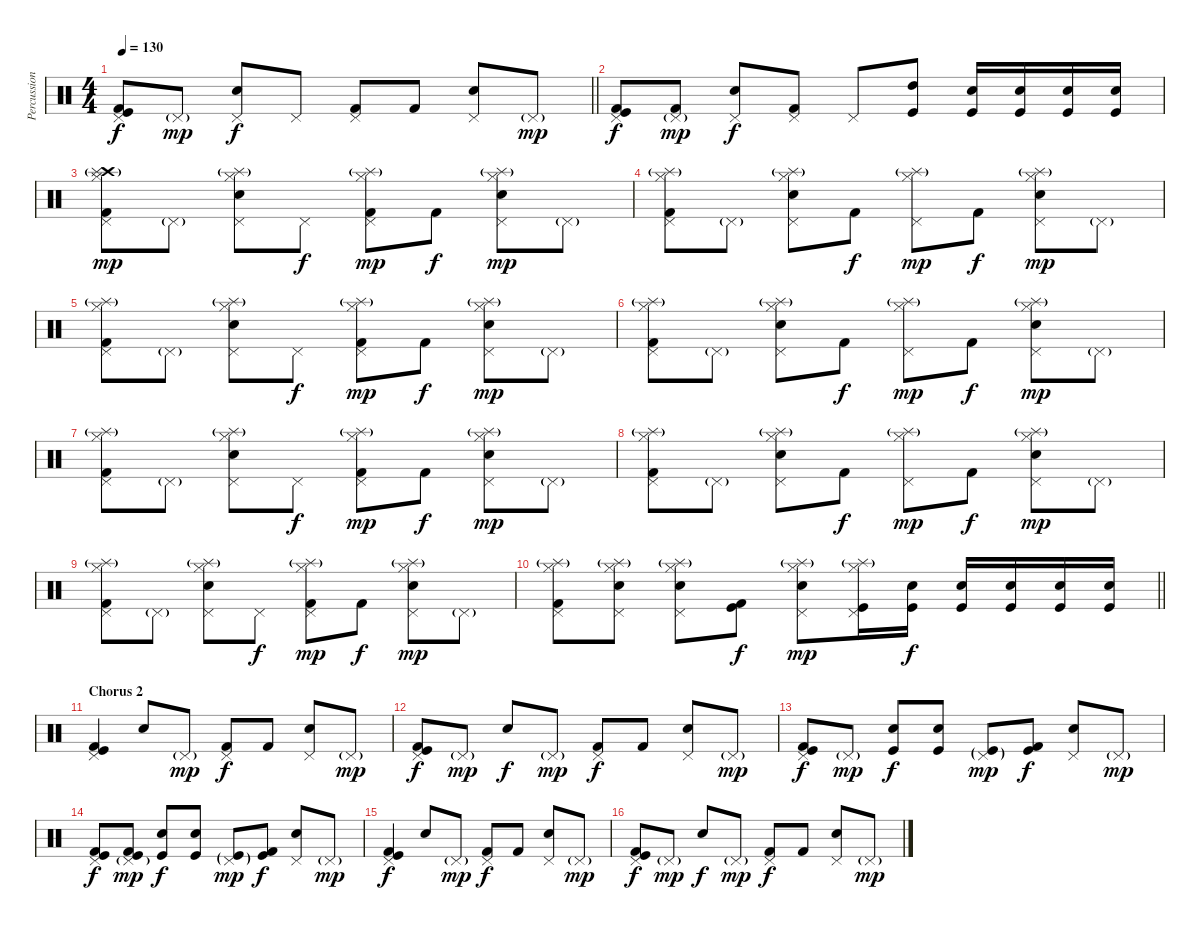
\track ("Percussion(Wendell Garcia)" "Percussion") {instrument percussion}
\staff {score}
\articulation defaults
\ts (4 4)
\tempo 130
\clef neutral
\barLineRight lightlight
\ks c
("Pedal Hi-Hat (hit)" "Kick (hit)" "Kick (hit) 2").8{dy f} "Pedal Hi-Hat (hit)"{g}.8{dy mp} ("Pedal Hi-Hat (hit)" "Electric Snare (hit)").8{dy f} "Pedal Hi-Hat (hit)".8 ("Pedal Hi-Hat (hit)" "Kick (hit) 2").8 "Kick (hit) 2".8 ("Pedal Hi-Hat (hit)" "Electric Snare (hit)").8 "Pedal Hi-Hat (hit)"{g}.8{dy mp} |
("Pedal Hi-Hat (hit)" "Kick (hit)" "Kick (hit) 2").8{dy f} ("Pedal Hi-Hat (hit)"{g} "Kick (hit) 2").8{dy mp} ("Pedal Hi-Hat (hit)" "Electric Snare (hit)").8{dy f} ("Pedal Hi-Hat (hit)" "Kick (hit) 2").8 "Pedal Hi-Hat (hit)".8 ("Kick (hit)" "High Tom (hit)").8 ("Kick (hit)" "Electric Snare (hit)").16 ("Kick (hit)" "Electric Snare (hit)").16 ("Kick (hit)" "Electric Snare (hit)").16 ("Kick (hit)" "Electric Snare (hit)").16 |
("Crash high (hit)" "Pedal Hi-Hat (hit)" "Hi-Hat (closed)" "Splash (hit)"{g} "Kick (hit) 2").8{dy mp} "Pedal Hi-Hat (hit)"{g}.8 ("Electric Snare (hit)" "Pedal Hi-Hat (hit)" "Hi-Hat (closed)" "Splash (hit)"{g}).8 "Pedal Hi-Hat (hit)".8{dy f} ("Kick (hit) 2" "Pedal Hi-Hat (hit)" "Hi-Hat (closed)" "Splash (hit)"{g}).8{dy mp} "Kick (hit) 2".8{dy f} ("Electric Snare (hit)" "Pedal Hi-Hat (hit)" "Hi-Hat (closed)" "Splash (hit)"{g}).8{dy mp} "Pedal Hi-Hat (hit)"{g}.8 |
("Kick (hit) 2" "Pedal Hi-Hat (hit)" "Hi-Hat (closed)" "Splash (hit)"{g}).8 "Pedal Hi-Hat (hit)"{g}.8 ("Electric Snare (hit)" "Pedal Hi-Hat (hit)" "Hi-Hat (closed)" "Splash (hit)"{g}).8 "Kick (hit) 2".8{dy f} ("Pedal Hi-Hat (hit)" "Hi-Hat (closed)" "Splash (hit)"{g}).8{dy mp} "Kick (hit) 2".8{dy f} ("Electric Snare (hit)" "Pedal Hi-Hat (hit)" "Hi-Hat (closed)" "Splash (hit)"{g}).8{dy mp} "Pedal Hi-Hat (hit)"{g}.8 |
("Kick (hit) 2" "Pedal Hi-Hat (hit)" "Hi-Hat (closed)" "Splash (hit)"{g}).8 "Pedal Hi-Hat (hit)"{g}.8 ("Electric Snare (hit)" "Pedal Hi-Hat (hit)" "Hi-Hat (closed)" "Splash (hit)"{g}).8 "Pedal Hi-Hat (hit)".8{dy f} ("Kick (hit) 2" "Pedal Hi-Hat (hit)" "Hi-Hat (closed)" "Splash (hit)"{g}).8{dy mp} "Kick (hit) 2".8{dy f} ("Electric Snare (hit)" "Pedal Hi-Hat (hit)" "Hi-Hat (closed)" "Splash (hit)"{g}).8{dy mp} "Pedal Hi-Hat (hit)"{g}.8 |
("Kick (hit) 2" "Pedal Hi-Hat (hit)" "Hi-Hat (closed)" "Splash (hit)"{g}).8 "Pedal Hi-Hat (hit)"{g}.8 ("Electric Snare (hit)" "Pedal Hi-Hat (hit)" "Hi-Hat (closed)" "Splash (hit)"{g}).8 "Kick (hit) 2".8{dy f} ("Pedal Hi-Hat (hit)" "Hi-Hat (closed)" "Splash (hit)"{g}).8{dy mp} "Kick (hit) 2".8{dy f} ("Electric Snare (hit)" "Pedal Hi-Hat (hit)" "Hi-Hat (closed)" "Splash (hit)"{g}).8{dy mp} "Pedal Hi-Hat (hit)"{g}.8 |
("Kick (hit) 2" "Pedal Hi-Hat (hit)" "Hi-Hat (closed)" "Splash (hit)"{g}).8 "Pedal Hi-Hat (hit)"{g}.8 ("Electric Snare (hit)" "Pedal Hi-Hat (hit)" "Hi-Hat (closed)" "Splash (hit)"{g}).8 "Pedal Hi-Hat (hit)".8{dy f} ("Kick (hit) 2" "Pedal Hi-Hat (hit)" "Hi-Hat (closed)" "Splash (hit)"{g}).8{dy mp} "Kick (hit) 2".8{dy f} ("Electric Snare (hit)" "Pedal Hi-Hat (hit)" "Hi-Hat (closed)" "Splash (hit)"{g}).8{dy mp} "Pedal Hi-Hat (hit)"{g}.8 |
("Kick (hit) 2" "Pedal Hi-Hat (hit)" "Hi-Hat (closed)" "Splash (hit)"{g}).8 "Pedal Hi-Hat (hit)"{g}.8 ("Electric Snare (hit)" "Pedal Hi-Hat (hit)" "Hi-Hat (closed)" "Splash (hit)"{g}).8 "Kick (hit) 2".8{dy f} ("Pedal Hi-Hat (hit)" "Hi-Hat (closed)" "Splash (hit)"{g}).8{dy mp} "Kick (hit) 2".8{dy f} ("Electric Snare (hit)" "Pedal Hi-Hat (hit)" "Hi-Hat (closed)" "Splash (hit)"{g}).8{dy mp} "Pedal Hi-Hat (hit)"{g}.8 |
("Kick (hit) 2" "Pedal Hi-Hat (hit)" "Hi-Hat (closed)" "Splash (hit)"{g}).8 "Pedal Hi-Hat (hit)"{g}.8 ("Electric Snare (hit)" "Pedal Hi-Hat (hit)" "Hi-Hat (closed)" "Splash (hit)"{g}).8 "Pedal Hi-Hat (hit)".8{dy f} ("Kick (hit) 2" "Pedal Hi-Hat (hit)" "Hi-Hat (closed)" "Splash (hit)"{g}).8{dy mp} "Kick (hit) 2".8{dy f} ("Electric Snare (hit)" "Pedal Hi-Hat (hit)" "Hi-Hat (closed)" "Splash (hit)"{g}).8{dy mp} "Pedal Hi-Hat (hit)"{g}.8 |
\barLineRight lightlight
("Kick (hit) 2" "Pedal Hi-Hat (hit)" "Hi-Hat (closed)" "Splash (hit)"{g}).8 ("Electric Snare (hit)" "Pedal Hi-Hat (hit)" "Hi-Hat (closed)" "Splash (hit)"{g}).8 ("Electric Snare (hit)" "Pedal Hi-Hat (hit)" "Hi-Hat (closed)" "Splash (hit)"{g}).8 ("Kick (hit) 2" "Kick (hit)").8{dy f} ("Electric Snare (hit)" "Pedal Hi-Hat (hit)" "Hi-Hat (closed)" "Splash (hit)"{g}).8{dy mp} ("Kick (hit)" "Pedal Hi-Hat (hit)" "Hi-Hat (closed)" "Splash (hit)"{g}).16 ("Electric Snare (hit)" "Kick (hit)").16{dy f} ("Electric Snare (hit)" "Kick (hit)").16 ("Electric Snare (hit)" "Kick (hit)").16 ("Electric Snare (hit)" "Kick (hit)").16 ("Electric Snare (hit)" "Kick (hit)").16 |
\section ("" "Chorus 2")
("Pedal Hi-Hat (hit)" "Kick (hit) 2" "Kick (hit)").4 "Electric Snare (hit)".8 "Pedal Hi-Hat (hit)"{g}.8{dy mp} ("Kick (hit) 2" "Pedal Hi-Hat (hit)").8{dy f} "Kick (hit) 2".8 ("Electric Snare (hit)" "Pedal Hi-Hat (hit)").8 "Pedal Hi-Hat (hit)"{g}.8{dy mp} |
("Pedal Hi-Hat (hit)" "Kick (hit) 2" "Kick (hit)").8{dy f} "Pedal Hi-Hat (hit)"{g}.8{dy mp} "Electric Snare (hit)".8{dy f} "Pedal Hi-Hat (hit)"{g}.8{dy mp} ("Kick (hit) 2" "Pedal Hi-Hat (hit)").8{dy f} "Kick (hit) 2".8 ("Electric Snare (hit)" "Pedal Hi-Hat (hit)").8 "Pedal Hi-Hat (hit)"{g}.8{dy mp} |
("Pedal Hi-Hat (hit)" "Kick (hit) 2" "Kick (hit)").8{dy f} "Pedal Hi-Hat (hit)"{g}.8{dy mp} ("Electric Snare (hit)" "Kick (hit)").8{dy f} ("Electric Snare (hit)" "Kick (hit)").8 ("Kick (hit)"{g} "Pedal Hi-Hat (hit)"{g}).8{dy mp} ("Kick (hit) 2" "Kick (hit)").8{dy f} ("Electric Snare (hit)" "Pedal Hi-Hat (hit)").8 "Pedal Hi-Hat (hit)"{g}.8{dy mp} |
("Pedal Hi-Hat (hit)" "Kick (hit) 2" "Kick (hit)").8{dy f} ("Pedal Hi-Hat (hit)"{g} "Kick (hit) 2" "Kick (hit)").8{dy mp} ("Electric Snare (hit)" "Kick (hit)").8{dy f} ("Electric Snare (hit)" "Kick (hit)").8 ("Kick (hit)"{g} "Pedal Hi-Hat (hit)"{g}).8{dy mp} ("Kick (hit) 2" "Kick (hit)").8{dy f} ("Electric Snare (hit)" "Pedal Hi-Hat (hit)").8 "Pedal Hi-Hat (hit)"{g}.8{dy mp} |
("Pedal Hi-Hat (hit)" "Kick (hit) 2" "Kick (hit)").4{dy f} "Electric Snare (hit)".8 "Pedal Hi-Hat (hit)"{g}.8{dy mp} ("Kick (hit) 2" "Pedal Hi-Hat (hit)").8{dy f} "Kick (hit) 2".8 ("Electric Snare (hit)" "Pedal Hi-Hat (hit)").8 "Pedal Hi-Hat (hit)"{g}.8{dy mp} |
("Pedal Hi-Hat (hit)" "Kick (hit) 2" "Kick (hit)").8{dy f} "Pedal Hi-Hat (hit)"{g}.8{dy mp} "Electric Snare (hit)".8{dy f} "Pedal Hi-Hat (hit)"{g}.8{dy mp} ("Kick (hit) 2" "Pedal Hi-Hat (hit)").8{dy f} "Kick (hit) 2".8 ("Electric Snare (hit)" "Pedal Hi-Hat (hit)").8 "Pedal Hi-Hat (hit)"{g}.8{dy mp}
